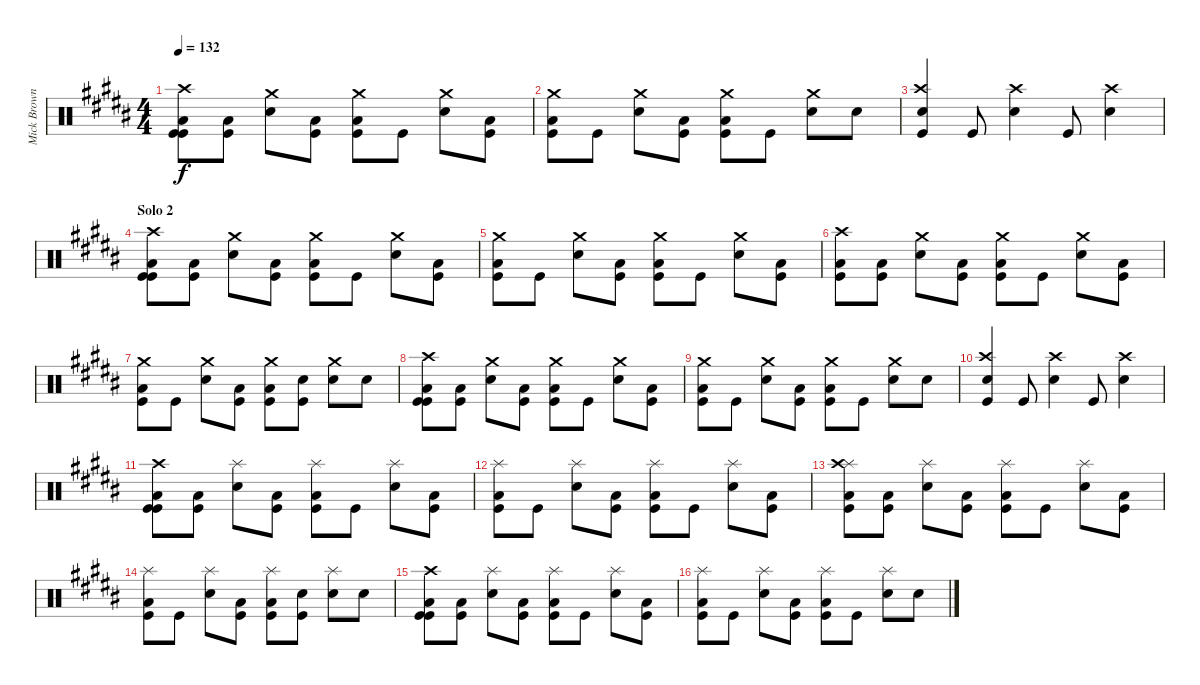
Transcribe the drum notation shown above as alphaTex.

\track ("Mick Brown" "Mick Brown") {instrument percussion}
\staff {score}
\articulation defaults
\ts (4 4)
\tempo 132
\clef neutral
\ks g#minor
("Kick (hit)" "Low Floor Tom (hit)" "Crash high (hit)" "Kick (hit)").8{dy f} ("Low Floor Tom (hit)" "Kick (hit)").8 ("Crash medium (hit)" "Snare (hit) 2").8 ("Kick (hit)" "Low Floor Tom (hit)").8 ("Crash medium (hit)" "Kick (hit)" "Low Floor Tom (hit)").8 "Kick (hit)".8 ("Crash medium (hit)" "Snare (hit) 2").8 ("Low Floor Tom (hit)" "Kick (hit)").8 |
("Crash medium (hit)" "Kick (hit)" "Low Floor Tom (hit)").8 "Kick (hit)".8 ("Crash medium (hit)" "Snare (hit) 2").8 ("Low Floor Tom (hit)" "Kick (hit)").8 ("Crash medium (hit)" "Kick (hit)" "Low Floor Tom (hit)").8 "Kick (hit)".8 ("Crash medium (hit)" "Snare (hit) 2").8 "Snare (hit) 2".8 |
("Kick (hit)" "Snare (hit) 2" "Crash high (hit)").4 "Kick (hit)".8 ("Snare (hit) 2" "Crash high (hit)").4 "Kick (hit)".8 ("Snare (hit) 2" "Crash high (hit)").4 |
\section ("" "Solo 2")
("Kick (hit)" "Low Floor Tom (hit)" "Crash high (hit)" "Kick (hit)").8 ("Low Floor Tom (hit)" "Kick (hit)").8 ("Crash medium (hit)" "Snare (hit) 2").8 ("Low Floor Tom (hit)" "Kick (hit)").8 ("Crash medium (hit)" "Low Floor Tom (hit)" "Kick (hit)").8 "Kick (hit)".8 ("Crash medium (hit)" "Snare (hit) 2").8 ("Low Floor Tom (hit)" "Kick (hit)").8 |
("Crash medium (hit)" "Kick (hit)" "Low Floor Tom (hit)").8 "Kick (hit)".8 ("Crash medium (hit)" "Snare (hit) 2").8 ("Low Floor Tom (hit)" "Kick (hit)").8 ("Crash medium (hit)" "Kick (hit)" "Low Floor Tom (hit)").8 "Kick (hit)".8 ("Crash medium (hit)" "Snare (hit) 2").8 ("Low Floor Tom (hit)" "Kick (hit)").8 |
("Low Floor Tom (hit)" "Kick (hit)" "Crash high (hit)").8 ("Low Floor Tom (hit)" "Kick (hit)").8 ("Crash medium (hit)" "Snare (hit) 2").8 ("Kick (hit)" "Low Floor Tom (hit)").8 ("Crash medium (hit)" "Low Floor Tom (hit)" "Kick (hit)").8 "Kick (hit)".8 ("Crash medium (hit)" "Snare (hit) 2").8 ("Low Floor Tom (hit)" "Kick (hit)").8 |
("Crash medium (hit)" "Low Floor Tom (hit)" "Kick (hit)").8 "Kick (hit)".8 ("Crash medium (hit)" "Snare (hit) 2").8 ("Low Floor Tom (hit)" "Kick (hit)").8 ("Crash medium (hit)" "Kick (hit)" "Low Floor Tom (hit)").8 ("Snare (hit) 2" "Kick (hit)").8 ("Crash medium (hit)" "Snare (hit) 2").8 "Snare (hit) 2".8 |
("Kick (hit)" "Low Floor Tom (hit)" "Crash high (hit)" "Kick (hit)").8 ("Low Floor Tom (hit)" "Kick (hit)").8 ("Crash medium (hit)" "Snare (hit) 2").8 ("Kick (hit)" "Low Floor Tom (hit)").8 ("Crash medium (hit)" "Kick (hit)" "Low Floor Tom (hit)").8 "Kick (hit)".8 ("Crash medium (hit)" "Snare (hit) 2").8 ("Low Floor Tom (hit)" "Kick (hit)").8 |
("Crash medium (hit)" "Kick (hit)" "Low Floor Tom (hit)").8 "Kick (hit)".8 ("Crash medium (hit)" "Snare (hit) 2").8 ("Low Floor Tom (hit)" "Kick (hit)").8 ("Crash medium (hit)" "Kick (hit)" "Low Floor Tom (hit)").8 "Kick (hit)".8 ("Crash medium (hit)" "Snare (hit) 2").8 "Snare (hit) 2".8 |
("Kick (hit)" "Snare (hit) 2" "Crash high (hit)").4 "Kick (hit)".8 ("Snare (hit) 2" "Crash high (hit)").4 "Kick (hit)".8 ("Snare (hit) 2" "Crash high (hit)").4 |
("Kick (hit)" "Low Floor Tom (hit)" "Crash high (hit)" "Kick (hit)").8 ("Low Floor Tom (hit)" "Kick (hit)").8 ("Splash (hit)" "Snare (hit) 2").8 ("Low Floor Tom (hit)" "Kick (hit)").8 ("Splash (hit)" "Low Floor Tom (hit)" "Kick (hit)").8 "Kick (hit)".8 ("Splash (hit)" "Snare (hit) 2").8 ("Low Floor Tom (hit)" "Kick (hit)").8 |
("Splash (hit)" "Kick (hit)" "Low Floor Tom (hit)").8 "Kick (hit)".8 ("Splash (hit)" "Snare (hit) 2").8 ("Low Floor Tom (hit)" "Kick (hit)").8 ("Splash (hit)" "Kick (hit)" "Low Floor Tom (hit)").8 "Kick (hit)".8 ("Snare (hit) 2" "Splash (hit)").8 ("Low Floor Tom (hit)" "Kick (hit)").8 |
("Splash (hit)" "Low Floor Tom (hit)" "Kick (hit)" "Crash high (hit)").8 ("Low Floor Tom (hit)" "Kick (hit)").8 ("Splash (hit)" "Snare (hit) 2").8 ("Kick (hit)" "Low Floor Tom (hit)").8 ("Splash (hit)" "Low Floor Tom (hit)" "Kick (hit)").8 "Kick (hit)".8 ("Splash (hit)" "Snare (hit) 2").8 ("Low Floor Tom (hit)" "Kick (hit)").8 |
("Splash (hit)" "Low Floor Tom (hit)" "Kick (hit)").8 "Kick (hit)".8 ("Splash (hit)" "Snare (hit) 2").8 ("Low Floor Tom (hit)" "Kick (hit)").8 ("Splash (hit)" "Kick (hit)" "Low Floor Tom (hit)").8 ("Snare (hit) 2" "Kick (hit)").8 ("Splash (hit)" "Snare (hit) 2").8 "Snare (hit) 2".8 |
("Kick (hit)" "Low Floor Tom (hit)" "Crash high (hit)" "Kick (hit)").8 ("Low Floor Tom (hit)" "Kick (hit)").8 ("Splash (hit)" "Snare (hit) 2").8 ("Kick (hit)" "Low Floor Tom (hit)").8 ("Kick (hit)" "Low Floor Tom (hit)" "Splash (hit)").8 "Kick (hit)".8 ("Splash (hit)" "Snare (hit) 2").8 ("Low Floor Tom (hit)" "Kick (hit)").8 |
("Splash (hit)" "Kick (hit)" "Low Floor Tom (hit)").8 "Kick (hit)".8 ("Splash (hit)" "Snare (hit) 2").8 ("Low Floor Tom (hit)" "Kick (hit)").8 ("Splash (hit)" "Kick (hit)" "Low Floor Tom (hit)").8 "Kick (hit)".8 ("Splash (hit)" "Snare (hit) 2").8 "Snare (hit) 2".8
